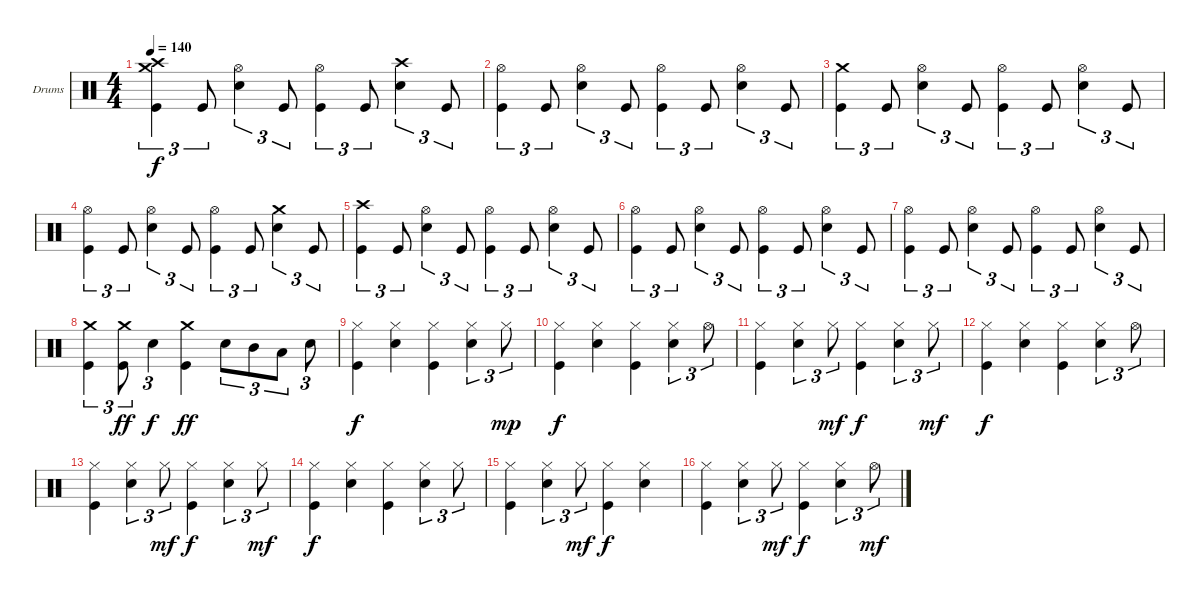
\defaultSystemsLayout 4
\bracketExtendMode groupsimilarinstruments
\firstSystemTrackNameOrientation horizontal
\otherSystemsTrackNameOrientation horizontal
\track ("Drumkit" "Drums") {instrument percussion}
\staff {score}
\articulation defaults
\ts (4 4)
\tempo 140
\clef neutral
\ks c
("Crash medium (hit)" "Crash high (hit)" "Kick (hit)").4{tu (3 2) dy f} "Kick (hit)".8{tu (3 2)} ("Hi-Hat (open)" "Snare (hit) 2").4{tu (3 2)} "Kick (hit)".8{tu (3 2)} ("Hi-Hat (open)" "Kick (hit)").4{tu (3 2)} "Kick (hit)".8{tu (3 2)} ("Crash high (hit)" "Snare (hit) 2").4{tu (3 2)} "Kick (hit)".8{tu (3 2)} |
("Hi-Hat (open)" "Kick (hit)").4{tu (3 2)} "Kick (hit)".8{tu (3 2)} ("Hi-Hat (open)" "Snare (hit) 2").4{tu (3 2)} "Kick (hit)".8{tu (3 2)} ("Hi-Hat (open)" "Kick (hit)").4{tu (3 2)} "Kick (hit)".8{tu (3 2)} ("Hi-Hat (open)" "Snare (hit) 2").4{tu (3 2)} "Kick (hit)".8{tu (3 2)} |
("Crash medium (hit)" "Kick (hit)").4{tu (3 2)} "Kick (hit)".8{tu (3 2)} ("Hi-Hat (open)" "Snare (hit) 2").4{tu (3 2)} "Kick (hit)".8{tu (3 2)} ("Hi-Hat (open)" "Kick (hit)").4{tu (3 2)} "Kick (hit)".8{tu (3 2)} ("Hi-Hat (open)" "Snare (hit) 2").4{tu (3 2)} "Kick (hit)".8{tu (3 2)} |
("Hi-Hat (open)" "Kick (hit)").4{tu (3 2)} "Kick (hit)".8{tu (3 2)} ("Hi-Hat (open)" "Snare (hit) 2").4{tu (3 2)} "Kick (hit)".8{tu (3 2)} ("Hi-Hat (open)" "Kick (hit)").4{tu (3 2)} "Kick (hit)".8{tu (3 2)} ("Crash medium (hit)" "Snare (hit) 2").4{tu (3 2)} "Kick (hit)".8{tu (3 2)} |
("Crash high (hit)" "Kick (hit)").4{tu (3 2)} "Kick (hit)".8{tu (3 2)} ("Hi-Hat (open)" "Snare (hit) 2").4{tu (3 2)} "Kick (hit)".8{tu (3 2)} ("Hi-Hat (open)" "Kick (hit)").4{tu (3 2)} "Kick (hit)".8{tu (3 2)} ("Hi-Hat (open)" "Snare (hit) 2").4{tu (3 2)} "Kick (hit)".8{tu (3 2)} |
("Hi-Hat (open)" "Kick (hit)").4{tu (3 2)} "Kick (hit)".8{tu (3 2)} ("Hi-Hat (open)" "Snare (hit) 2").4{tu (3 2)} "Kick (hit)".8{tu (3 2)} ("Hi-Hat (open)" "Kick (hit)").4{tu (3 2)} "Kick (hit)".8{tu (3 2)} ("Hi-Hat (open)" "Snare (hit) 2").4{tu (3 2)} "Kick (hit)".8{tu (3 2)} |
("Hi-Hat (open)" "Kick (hit)").4{tu (3 2)} "Kick (hit)".8{tu (3 2)} ("Hi-Hat (open)" "Snare (hit) 2").4{tu (3 2)} "Kick (hit)".8{tu (3 2)} ("Hi-Hat (open)" "Kick (hit)").4{tu (3 2)} "Kick (hit)".8{tu (3 2)} ("Hi-Hat (open)" "Snare (hit) 2").4{tu (3 2)} "Kick (hit)".8{tu (3 2)} |
("Crash medium (hit)" "Kick (hit)").4{tu (3 2)} ("Crash medium (hit)" "Kick (hit)").8{tu (3 2) dy ff} "Snare (hit) 2".4{tu (3 2) dy f} ("Crash medium (hit)" "Kick (hit)").4{dy ff} "Snare (hit) 2".8{tu (3 2)} "Mid Tom (hit)".8{tu (3 2)} "Low Tom (hit)".8{tu (3 2)} "Snare (hit) 2".8{tu (3 2)} |
("Hi-Hat (closed)" "Kick (hit)").4{dy f} ("Hi-Hat (closed)" "Snare (hit) 2").4 ("Hi-Hat (closed)" "Kick (hit)").4 ("Hi-Hat (closed)" "Snare (hit) 2").4{tu (3 2)} "Hi-Hat (closed)".8{tu (3 2) dy mp} |
("Hi-Hat (closed)" "Kick (hit)").4{dy f} ("Hi-Hat (closed)" "Snare (hit) 2").4 ("Hi-Hat (closed)" "Kick (hit)").4 ("Hi-Hat (closed)" "Snare (hit) 2").4{tu (3 2)} "Hi-Hat (open)".8{tu (3 2)} |
("Hi-Hat (closed)" "Kick (hit)").4 ("Hi-Hat (closed)" "Snare (hit) 2").4{tu (3 2)} "Hi-Hat (closed)".8{tu (3 2) dy mf} ("Hi-Hat (closed)" "Kick (hit)").4{dy f} ("Hi-Hat (closed)" "Snare (hit) 2").4{tu (3 2)} "Hi-Hat (closed)".8{tu (3 2) dy mf} |
("Hi-Hat (closed)" "Kick (hit)").4{dy f} ("Hi-Hat (closed)" "Snare (hit) 2").4 ("Hi-Hat (closed)" "Kick (hit)").4 ("Hi-Hat (closed)" "Snare (hit) 2").4{tu (3 2)} "Hi-Hat (open)".8{tu (3 2)} |
("Hi-Hat (closed)" "Kick (hit)").4 ("Hi-Hat (closed)" "Snare (hit) 2").4{tu (3 2)} "Hi-Hat (closed)".8{tu (3 2) dy mf} ("Hi-Hat (closed)" "Kick (hit)").4{dy f} ("Hi-Hat (closed)" "Snare (hit) 2").4{tu (3 2)} "Hi-Hat (closed)".8{tu (3 2) dy mf} |
("Hi-Hat (closed)" "Kick (hit)").4{dy f} ("Hi-Hat (closed)" "Snare (hit) 2").4 ("Hi-Hat (closed)" "Kick (hit)").4 ("Hi-Hat (closed)" "Snare (hit) 2").4{tu (3 2)} "Hi-Hat (closed)".8{tu (3 2)} |
("Hi-Hat (closed)" "Kick (hit)").4 ("Hi-Hat (closed)" "Snare (hit) 2").4{tu (3 2)} "Hi-Hat (closed)".8{tu (3 2) dy mf} ("Hi-Hat (closed)" "Kick (hit)").4{dy f} ("Hi-Hat (closed)" "Snare (hit) 2").4 |
("Hi-Hat (closed)" "Kick (hit)").4 ("Hi-Hat (closed)" "Snare (hit) 2").4{tu (3 2)} "Hi-Hat (closed)".8{tu (3 2) dy mf} ("Hi-Hat (closed)" "Kick (hit)").4{dy f} ("Hi-Hat (closed)" "Snare (hit) 2").4{tu (3 2)} "Hi-Hat (open)".8{tu (3 2) dy mf}
